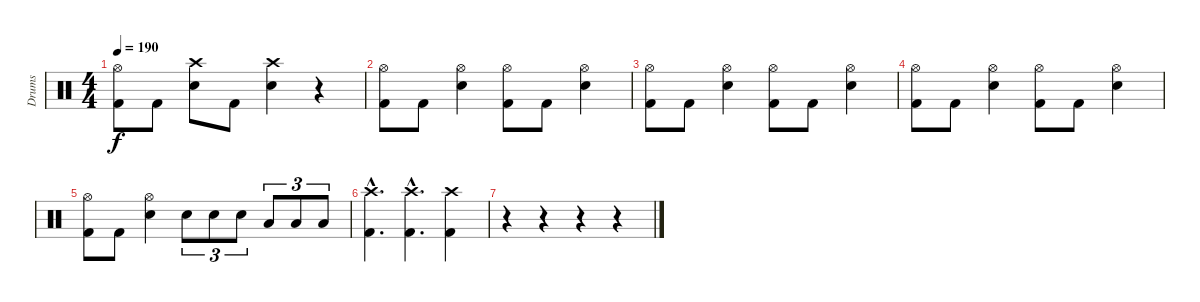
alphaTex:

\track ("Drums" "Drums") {instrument percussion}
\staff {score}
\articulation defaults
\ts (4 4)
\tempo 190
\clef neutral
\ks c
("Hi-Hat (open)" "Kick (hit) 2").8{dy f} "Kick (hit) 2".8 ("Crash high (hit)" "Electric Snare (hit)").8 "Kick (hit) 2".8 ("Crash high (hit)" "Electric Snare (hit)").4 r.4 |
("Hi-Hat (open)" "Kick (hit) 2").8 "Kick (hit) 2".8 ("Hi-Hat (open)" "Electric Snare (hit)").4 ("Hi-Hat (open)" "Kick (hit) 2").8 "Kick (hit) 2".8 ("Hi-Hat (open)" "Electric Snare (hit)").4 |
("Hi-Hat (open)" "Kick (hit) 2").8 "Kick (hit) 2".8 ("Hi-Hat (open)" "Electric Snare (hit)").4 ("Hi-Hat (open)" "Kick (hit) 2").8 "Kick (hit) 2".8 ("Hi-Hat (open)" "Electric Snare (hit)").4 |
("Hi-Hat (open)" "Kick (hit) 2").8 "Kick (hit) 2".8 ("Hi-Hat (open)" "Electric Snare (hit)").4 ("Hi-Hat (open)" "Kick (hit) 2").8 "Kick (hit) 2".8 ("Hi-Hat (open)" "Electric Snare (hit)").4 |
("Hi-Hat (open)" "Kick (hit) 2").8 "Kick (hit) 2".8 ("Hi-Hat (open)" "Electric Snare (hit)").4 "Electric Snare (hit)".8{tu (3 2)} "Electric Snare (hit)".8{tu (3 2)} "Electric Snare (hit)".8{tu (3 2)} "Low Tom (hit)".8{tu (3 2)} "Low Tom (hit)".8{tu (3 2)} "Low Tom (hit)".8{tu (3 2)} |
("Crash high (hit)"{hac} "Kick (hit) 2"{hac}).4{d} ("Crash high (hit)"{hac} "Kick (hit) 2"{hac}).4{d} ("Crash high (hit)" "Kick (hit) 2").4 |
r.4 r.4 r.4 r.4
